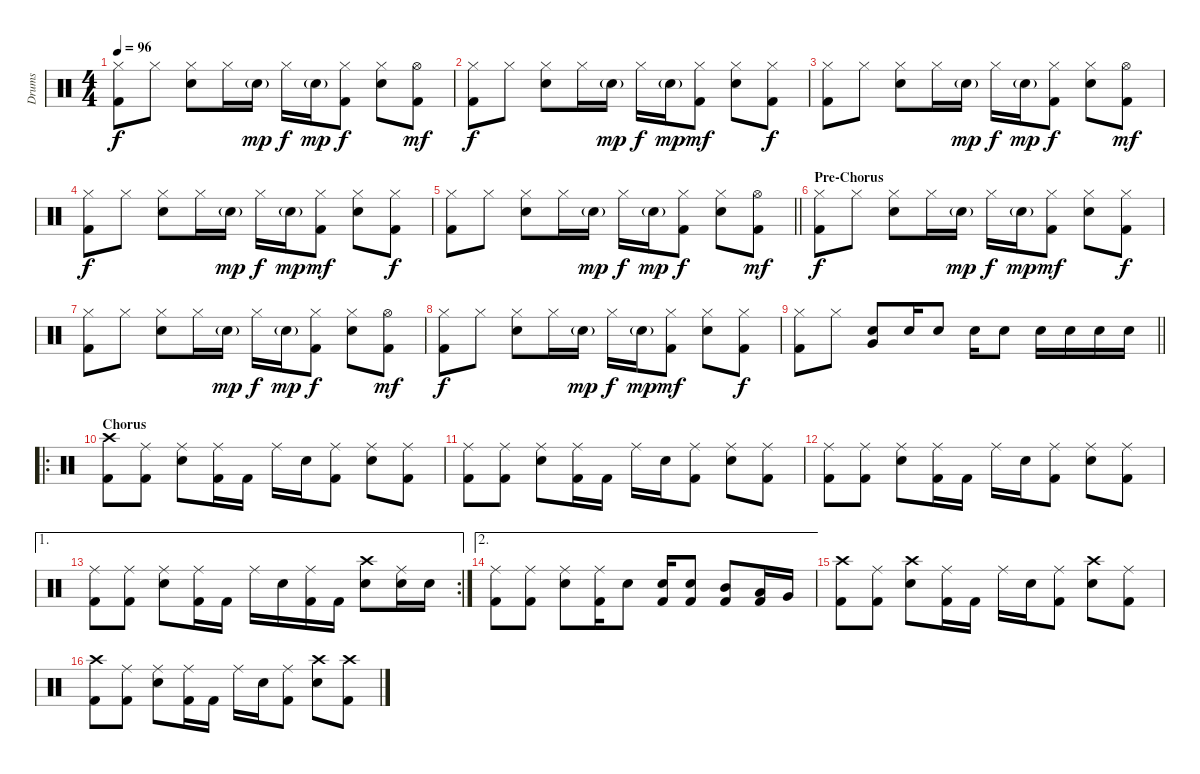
\track ("Drums" "Drums") {instrument percussion}
\staff {score}
\articulation defaults
\ts (4 4)
\tempo 96
\clef neutral
\ks c
("Hi-Hat (closed)" "Kick (hit) 2").8{dy f} "Hi-Hat (closed)".8 ("Hi-Hat (closed)" "Electric Snare (hit)").8 "Hi-Hat (closed)".16 "Electric Snare (hit)"{g}.16{dy mp} "Hi-Hat (closed)".16{dy f} "Electric Snare (hit)"{g}.16{dy mp} ("Hi-Hat (closed)" "Kick (hit) 2").8{dy f} ("Hi-Hat (closed)" "Electric Snare (hit)").8 ("Hi-Hat (open)" "Kick (hit) 2").8{dy mf} |
("Hi-Hat (closed)" "Kick (hit) 2").8{dy f} "Hi-Hat (closed)".8 ("Hi-Hat (closed)" "Electric Snare (hit)").8 "Hi-Hat (closed)".16 "Electric Snare (hit)"{g}.16{dy mp} "Hi-Hat (closed)".16{dy f} "Electric Snare (hit)"{g}.16{dy mp} ("Hi-Hat (closed)" "Kick (hit) 2").8{dy mf} ("Hi-Hat (closed)" "Electric Snare (hit)").8 ("Hi-Hat (closed)" "Kick (hit) 2").8{dy f} |
("Hi-Hat (closed)" "Kick (hit) 2").8 "Hi-Hat (closed)".8 ("Hi-Hat (closed)" "Electric Snare (hit)").8 "Hi-Hat (closed)".16 "Electric Snare (hit)"{g}.16{dy mp} "Hi-Hat (closed)".16{dy f} "Electric Snare (hit)"{g}.16{dy mp} ("Hi-Hat (closed)" "Kick (hit) 2").8{dy f} ("Hi-Hat (closed)" "Electric Snare (hit)").8 ("Hi-Hat (open)" "Kick (hit) 2").8{dy mf} |
("Hi-Hat (closed)" "Kick (hit) 2").8{dy f} "Hi-Hat (closed)".8 ("Hi-Hat (closed)" "Electric Snare (hit)").8 "Hi-Hat (closed)".16 "Electric Snare (hit)"{g}.16{dy mp} "Hi-Hat (closed)".16{dy f} "Electric Snare (hit)"{g}.16{dy mp} ("Hi-Hat (closed)" "Kick (hit) 2").8{dy mf} ("Hi-Hat (closed)" "Electric Snare (hit)").8 ("Hi-Hat (closed)" "Kick (hit) 2").8{dy f} |
\barLineRight lightlight
("Hi-Hat (closed)" "Kick (hit) 2").8 "Hi-Hat (closed)".8 ("Hi-Hat (closed)" "Electric Snare (hit)").8 "Hi-Hat (closed)".16 "Electric Snare (hit)"{g}.16{dy mp} "Hi-Hat (closed)".16{dy f} "Electric Snare (hit)"{g}.16{dy mp} ("Hi-Hat (closed)" "Kick (hit) 2").8{dy f} ("Hi-Hat (closed)" "Electric Snare (hit)").8 ("Hi-Hat (open)" "Kick (hit) 2").8{dy mf} |
\section ("" "Pre-Chorus")
("Hi-Hat (closed)" "Kick (hit) 2").8{dy f} "Hi-Hat (closed)".8 ("Hi-Hat (closed)" "Electric Snare (hit)").8 "Hi-Hat (closed)".16 "Electric Snare (hit)"{g}.16{dy mp} "Hi-Hat (closed)".16{dy f} "Electric Snare (hit)"{g}.16{dy mp} ("Hi-Hat (closed)" "Kick (hit) 2").8{dy mf} ("Hi-Hat (closed)" "Electric Snare (hit)").8 ("Hi-Hat (closed)" "Kick (hit) 2").8{dy f} |
("Hi-Hat (closed)" "Kick (hit) 2").8 "Hi-Hat (closed)".8 ("Hi-Hat (closed)" "Electric Snare (hit)").8 "Hi-Hat (closed)".16 "Electric Snare (hit)"{g}.16{dy mp} "Hi-Hat (closed)".16{dy f} "Electric Snare (hit)"{g}.16{dy mp} ("Hi-Hat (closed)" "Kick (hit) 2").8{dy f} ("Hi-Hat (closed)" "Electric Snare (hit)").8 ("Hi-Hat (open)" "Kick (hit) 2").8{dy mf} |
("Hi-Hat (closed)" "Kick (hit) 2").8{dy f} "Hi-Hat (closed)".8 ("Hi-Hat (closed)" "Electric Snare (hit)").8 "Hi-Hat (closed)".16 "Electric Snare (hit)"{g}.16{dy mp} "Hi-Hat (closed)".16{dy f} "Electric Snare (hit)"{g}.16{dy mp} ("Hi-Hat (closed)" "Kick (hit) 2").8{dy mf} ("Hi-Hat (closed)" "Electric Snare (hit)").8 ("Hi-Hat (closed)" "Kick (hit) 2").8{dy f} |
\barLineRight lightlight
("Hi-Hat (closed)" "Kick (hit) 2").8 "Hi-Hat (closed)".8 ("Electric Snare (hit)" "Very Low Tom (hit)").8{volume 14} "Electric Snare (hit)".16 "Electric Snare (hit)".8 "Electric Snare (hit)".16 "Electric Snare (hit)".8 "Electric Snare (hit)".16 "Electric Snare (hit)".16 "Electric Snare (hit)".16 "Electric Snare (hit)".16 |
\ro
\section ("" "Chorus")
("Crash high (hit)" "Kick (hit) 2").8 ("Ride (middle)" "Kick (hit) 2").8 ("Ride (middle)" "Electric Snare (hit)").8 ("Ride (middle)" "Kick (hit) 2").16 "Kick (hit) 2".16 "Ride (middle)".16 "Electric Snare (hit)".16 ("Ride (middle)" "Kick (hit) 2").8 ("Ride (middle)" "Electric Snare (hit)").8 ("Ride (middle)" "Kick (hit) 2").8 |
("Ride (middle)" "Kick (hit) 2").8 ("Ride (middle)" "Kick (hit) 2").8 ("Ride (middle)" "Electric Snare (hit)").8 ("Ride (middle)" "Kick (hit) 2").16 "Kick (hit) 2".16 "Ride (middle)".16 "Electric Snare (hit)".16 ("Ride (middle)" "Kick (hit) 2").8 ("Ride (middle)" "Electric Snare (hit)").8 ("Ride (middle)" "Kick (hit) 2").8 |
("Ride (middle)" "Kick (hit) 2").8 ("Ride (middle)" "Kick (hit) 2").8 ("Ride (middle)" "Electric Snare (hit)").8 ("Ride (middle)" "Kick (hit) 2").16 "Kick (hit) 2".16 "Ride (middle)".16 "Electric Snare (hit)".16 ("Ride (middle)" "Kick (hit) 2").8 ("Ride (middle)" "Electric Snare (hit)").8 ("Ride (middle)" "Kick (hit) 2").8 |
\ae 1
\rc 2
("Ride (middle)" "Kick (hit) 2").8 ("Ride (middle)" "Kick (hit) 2").8 ("Ride (middle)" "Electric Snare (hit)").8 ("Ride (middle)" "Kick (hit) 2").16 "Kick (hit) 2".16 "Ride (middle)".16 "Electric Snare (hit)".16 ("Ride (middle)" "Kick (hit) 2").16 "Kick (hit) 2".16 ("Crash high (hit)" "Electric Snare (hit)").8 ("Ride (middle)" "Electric Snare (hit)").16 "Electric Snare (hit)".16 |
\ae 2
("Ride (middle)" "Kick (hit) 2").8 ("Ride (middle)" "Kick (hit) 2").8 ("Ride (middle)" "Electric Snare (hit)").8 ("Ride (middle)" "Kick (hit) 2").16 "Electric Snare (hit)".8 ("Electric Snare (hit)" "Kick (hit) 2").16 ("Electric Snare (hit)" "Kick (hit) 2").8 ("Mid Tom (hit)" "Kick (hit) 2").8 ("Low Tom (hit)" "Kick (hit) 2").16 "Very Low Tom (hit)".16 |
("Crash high (hit)" "Kick (hit) 2").8 ("Ride (middle)" "Kick (hit) 2").8 ("Crash high (hit)" "Electric Snare (hit)").8 ("Ride (middle)" "Kick (hit) 2").16 "Kick (hit) 2".16 "Ride (middle)".16 "Electric Snare (hit)".16 ("Ride (middle)" "Kick (hit) 2").8 ("Crash high (hit)" "Electric Snare (hit)").8 ("Ride (middle)" "Kick (hit) 2").8 |
("Crash high (hit)" "Kick (hit) 2").8 ("Ride (middle)" "Kick (hit) 2").8 ("Ride (middle)" "Electric Snare (hit)").8 ("Ride (middle)" "Kick (hit) 2").16 "Kick (hit) 2".16 "Ride (middle)".16 "Electric Snare (hit)".16 ("Ride (middle)" "Kick (hit) 2").8 ("Crash high (hit)" "Electric Snare (hit)").8 ("Crash high (hit)" "Kick (hit) 2").8
